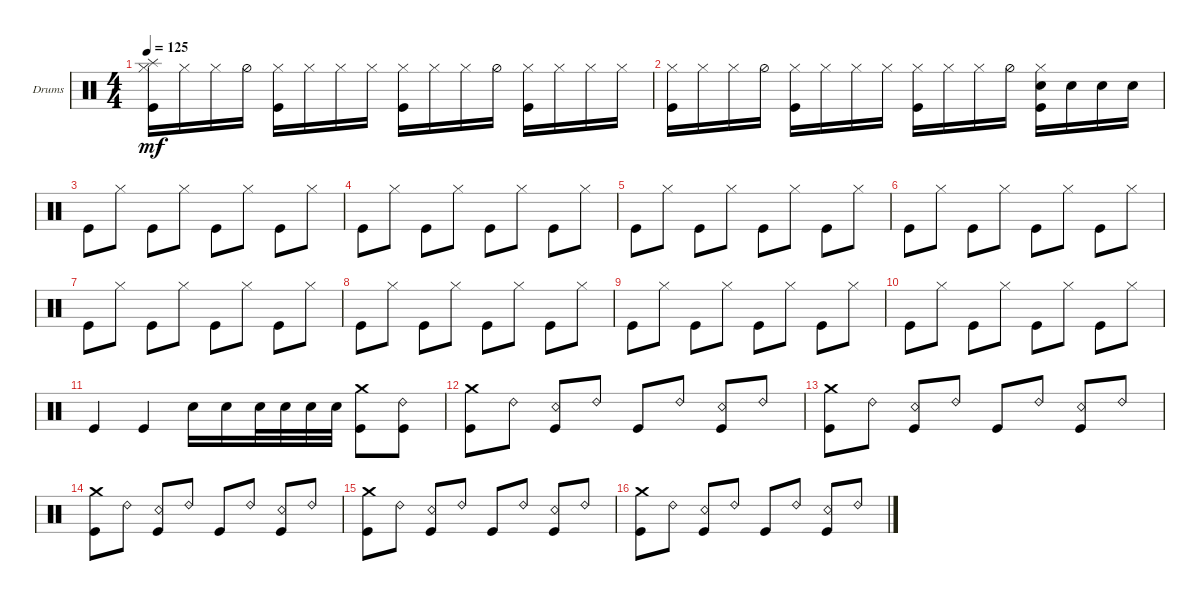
\defaultSystemsLayout 4
\bracketExtendMode groupsimilarinstruments
\firstSystemTrackNameOrientation horizontal
\otherSystemsTrackNameOrientation horizontal
\track ("Drumkit" "Drums") {instrument percussion}
\staff {score}
\articulation defaults
\ts (4 4)
\tempo 125
\clef neutral
\ks c
("Hi-Hat (closed)" "Kick (hit)" "Splash (hit)").16{dy mf} "Hi-Hat (closed)".16 "Hi-Hat (closed)".16 "Hi-Hat (half)".16 ("Hi-Hat (closed)" "Kick (hit)").16 "Hi-Hat (closed)".16 "Hi-Hat (closed)".16 "Hi-Hat (closed)".16 ("Hi-Hat (closed)" "Kick (hit)").16 "Hi-Hat (closed)".16 "Hi-Hat (closed)".16 "Hi-Hat (half)".16 ("Hi-Hat (closed)" "Kick (hit)").16 "Hi-Hat (closed)".16 "Hi-Hat (closed)".16 "Hi-Hat (closed)".16 |
("Hi-Hat (closed)" "Kick (hit)").16 "Hi-Hat (closed)".16 "Hi-Hat (closed)".16 "Hi-Hat (half)".16 ("Hi-Hat (closed)" "Kick (hit)").16 "Hi-Hat (closed)".16 "Hi-Hat (closed)".16 "Hi-Hat (closed)".16 ("Hi-Hat (closed)" "Kick (hit)").16 "Hi-Hat (closed)".16 "Hi-Hat (closed)".16 "Hi-Hat (half)".16 ("Hi-Hat (closed)" "Kick (hit)" "Snare (hit) 2").16 "Snare (hit) 2".16 "Snare (hit) 2".16 "Snare (hit) 2".16 |
"Kick (hit)".8 "Hi-Hat (closed)".8 "Kick (hit)".8 "Hi-Hat (closed)".8 "Kick (hit)".8 "Hi-Hat (closed)".8 "Kick (hit)".8 "Hi-Hat (closed)".8 |
"Kick (hit)".8 "Hi-Hat (closed)".8 "Kick (hit)".8 "Hi-Hat (closed)".8 "Kick (hit)".8 "Hi-Hat (closed)".8 "Kick (hit)".8 "Hi-Hat (closed)".8 |
"Kick (hit)".8 "Hi-Hat (closed)".8 "Kick (hit)".8 "Hi-Hat (closed)".8 "Kick (hit)".8 "Hi-Hat (closed)".8 "Kick (hit)".8 "Hi-Hat (closed)".8 |
"Kick (hit)".8 "Hi-Hat (closed)".8 "Kick (hit)".8 "Hi-Hat (closed)".8 "Kick (hit)".8 "Hi-Hat (closed)".8 "Kick (hit)".8 "Hi-Hat (closed)".8 |
"Kick (hit)".8 "Hi-Hat (closed)".8 "Kick (hit)".8 "Hi-Hat (closed)".8 "Kick (hit)".8 "Hi-Hat (closed)".8 "Kick (hit)".8 "Hi-Hat (closed)".8 |
"Kick (hit)".8 "Hi-Hat (closed)".8 "Kick (hit)".8 "Hi-Hat (closed)".8 "Kick (hit)".8 "Hi-Hat (closed)".8 "Kick (hit)".8 "Hi-Hat (closed)".8 |
"Kick (hit)".8 "Hi-Hat (closed)".8 "Kick (hit)".8 "Hi-Hat (closed)".8 "Kick (hit)".8 "Hi-Hat (closed)".8 "Kick (hit)".8 "Hi-Hat (closed)".8 |
"Kick (hit)".8 "Hi-Hat (closed)".8 "Kick (hit)".8 "Hi-Hat (closed)".8 "Kick (hit)".8 "Hi-Hat (closed)".8 "Kick (hit)".8 "Hi-Hat (closed)".8 |
"Kick (hit)".4 "Kick (hit)".4 "Snare (hit) 2".16 "Snare (hit) 2".16 "Snare (hit) 2".32 "Snare (hit) 2".32 "Snare (hit) 2".32 "Snare (hit) 2".32 ("Crash medium (hit)" "Kick (hit)").8 ("Ride (bell) 2" "Kick (hit)").8 |
("Kick (hit)" "Crash medium (hit)").8 "Ride (bell) 2".8 ("Kick (hit)" "Snare (rim shot)").8 "Ride (bell) 2".8 "Kick (hit)".8 "Ride (bell) 2".8 ("Kick (hit)" "Snare (rim shot)").8 "Ride (bell) 2".8 |
("Kick (hit)" "Crash medium (hit)").8 "Ride (bell) 2".8 ("Kick (hit)" "Snare (rim shot)").8 "Ride (bell) 2".8 "Kick (hit)".8 "Ride (bell) 2".8 ("Kick (hit)" "Snare (rim shot)").8 "Ride (bell) 2".8 |
("Kick (hit)" "Crash medium (hit)").8 "Ride (bell) 2".8 ("Kick (hit)" "Snare (rim shot)").8 "Ride (bell) 2".8 "Kick (hit)".8 "Ride (bell) 2".8 ("Kick (hit)" "Snare (rim shot)").8 "Ride (bell) 2".8 |
("Kick (hit)" "Crash medium (hit)").8 "Ride (bell) 2".8 ("Kick (hit)" "Snare (rim shot)").8 "Ride (bell) 2".8 "Kick (hit)".8 "Ride (bell) 2".8 ("Kick (hit)" "Snare (rim shot)").8 "Ride (bell) 2".8 |
("Kick (hit)" "Crash medium (hit)").8 "Ride (bell) 2".8 ("Kick (hit)" "Snare (rim shot)").8 "Ride (bell) 2".8 "Kick (hit)".8 "Ride (bell) 2".8 ("Kick (hit)" "Snare (rim shot)").8 "Ride (bell) 2".8
